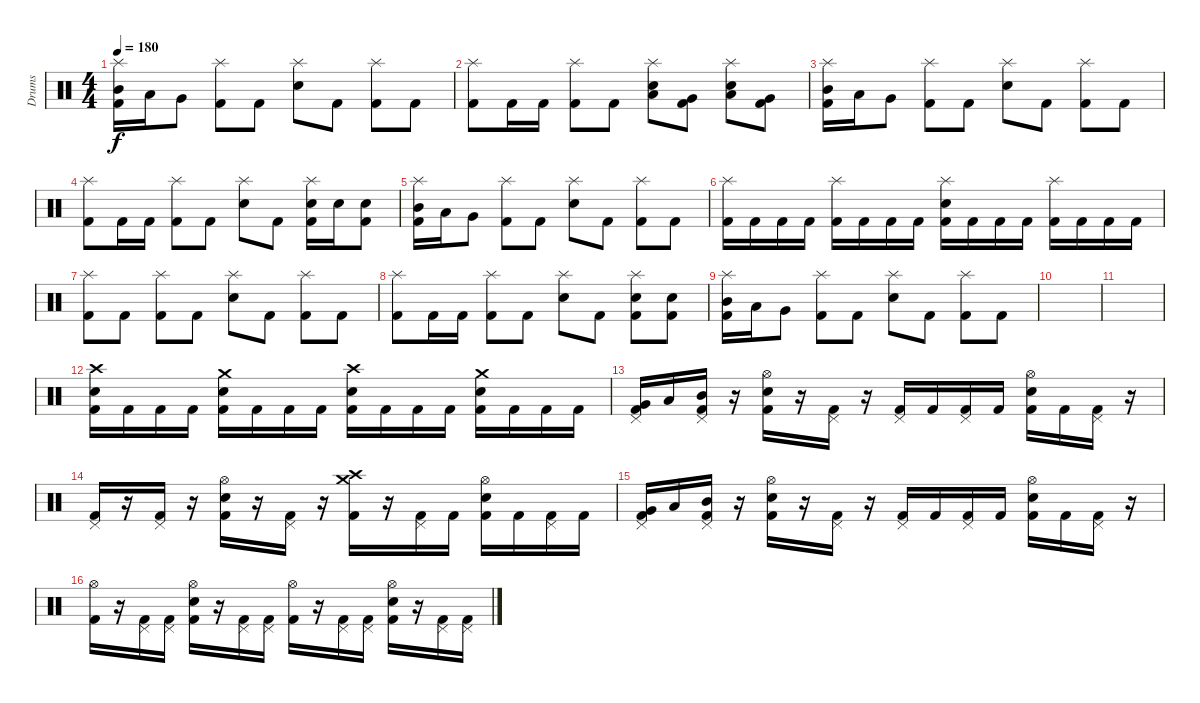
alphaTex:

\track ("Drums" "Drums") {instrument percussion}
\staff {score}
\articulation defaults
\ts (4 4)
\tempo 180
\clef neutral
\ks c
("Splash (hit)" "Mid Tom (hit)" "Kick (hit) 2").16{dy f} "Low Tom (hit)".16 "Very Low Tom (hit)".8 ("Splash (hit)" "Kick (hit) 2").8 "Kick (hit) 2".8 ("Splash (hit)" "Snare (hit) 2").8 "Kick (hit) 2".8 ("Splash (hit)" "Kick (hit) 2").8 "Kick (hit) 2".8 |
("Splash (hit)" "Kick (hit) 2").8 "Kick (hit) 2".16 "Kick (hit) 2".16 ("Splash (hit)" "Kick (hit) 2").8 "Kick (hit) 2".8 ("Splash (hit)" "Snare (hit) 2" "Low Tom (hit)").8 ("Very Low Tom (hit)" "Kick (hit) 2").8 ("Splash (hit)" "Snare (hit) 2" "Low Tom (hit)").8 ("Very Low Tom (hit)" "Kick (hit) 2").8 |
("Splash (hit)" "Mid Tom (hit)" "Kick (hit) 2").16 "Low Tom (hit)".16 "Very Low Tom (hit)".8 ("Splash (hit)" "Kick (hit) 2").8 "Kick (hit) 2".8 ("Splash (hit)" "Snare (hit) 2").8 "Kick (hit) 2".8 ("Splash (hit)" "Kick (hit) 2").8 "Kick (hit) 2".8 |
("Splash (hit)" "Kick (hit) 2").8 "Kick (hit) 2".16 "Kick (hit) 2".16 ("Splash (hit)" "Kick (hit) 2").8 "Kick (hit) 2".8 ("Splash (hit)" "Snare (hit) 2").8 "Kick (hit) 2".8 ("Splash (hit)" "Snare (hit) 2" "Kick (hit) 2").16 "Snare (hit) 2".16 ("Snare (hit) 2" "Kick (hit) 2").8 |
("Splash (hit)" "Mid Tom (hit)" "Kick (hit) 2").16 "Low Tom (hit)".16 "Very Low Tom (hit)".8 ("Splash (hit)" "Kick (hit) 2").8 "Kick (hit) 2".8 ("Splash (hit)" "Snare (hit) 2").8 "Kick (hit) 2".8 ("Splash (hit)" "Kick (hit) 2").8 "Kick (hit) 2".8 |
("Splash (hit)" "Kick (hit) 2").16 "Kick (hit) 2".16 "Kick (hit) 2".16 "Kick (hit) 2".16 ("Splash (hit)" "Kick (hit) 2").16 "Kick (hit) 2".16 "Kick (hit) 2".16 "Kick (hit) 2".16 ("Splash (hit)" "Snare (hit) 2" "Kick (hit) 2").16 "Kick (hit) 2".16 "Kick (hit) 2".16 "Kick (hit) 2".16 ("Splash (hit)" "Kick (hit) 2").16 "Kick (hit) 2".16 "Kick (hit) 2".16 "Kick (hit) 2".16 |
("Splash (hit)" "Kick (hit) 2").8 "Kick (hit) 2".8 ("Splash (hit)" "Kick (hit) 2").8 "Kick (hit) 2".8 ("Splash (hit)" "Snare (hit) 2").8 "Kick (hit) 2".8 ("Splash (hit)" "Kick (hit) 2").8 "Kick (hit) 2".8 |
("Splash (hit)" "Kick (hit) 2").8 "Kick (hit) 2".16 "Kick (hit) 2".16 ("Splash (hit)" "Kick (hit) 2").8 "Kick (hit) 2".8 ("Splash (hit)" "Snare (hit) 2").8 "Kick (hit) 2".8 ("Splash (hit)" "Snare (hit) 2" "Kick (hit) 2").8 ("Snare (hit) 2" "Kick (hit) 2").8 |
("Splash (hit)" "Mid Tom (hit)" "Kick (hit) 2").16 "Low Tom (hit)".16 "Very Low Tom (hit)".8 ("Splash (hit)" "Kick (hit) 2").8 "Kick (hit) 2".8 ("Splash (hit)" "Snare (hit) 2").8 "Kick (hit) 2".8 ("Splash (hit)" "Kick (hit) 2").8 "Kick (hit) 2".8 |
|
|
("Crash high (hit)" "Snare (hit) 2" "Kick (hit) 2").16 "Kick (hit) 2".16 "Kick (hit) 2".16 "Kick (hit) 2".16 ("Crash medium (hit)" "Snare (hit) 2" "Kick (hit) 2").16 "Kick (hit) 2".16 "Kick (hit) 2".16 "Kick (hit) 2".16 ("Crash high (hit)" "Snare (hit) 2" "Kick (hit) 2").16 "Kick (hit) 2".16 "Kick (hit) 2".16 "Kick (hit) 2".16 ("Crash medium (hit)" "Snare (hit) 2" "Kick (hit) 2").16 "Kick (hit) 2".16 "Kick (hit) 2".16 "Kick (hit) 2".16 |
("Pedal Hi-Hat (hit)" "Very Low Tom (hit)" "Kick (hit) 2").16 "Low Tom (hit)".16 ("Pedal Hi-Hat (hit)" "Mid Tom (hit)" "Kick (hit) 2").16 r.16 ("Hi-Hat (open)" "Snare (hit) 2" "Kick (hit) 2").16 r.16 ("Pedal Hi-Hat (hit)" "Kick (hit) 2").16 r.16 ("Pedal Hi-Hat (hit)" "Kick (hit) 2").16 "Kick (hit) 2".16 ("Pedal Hi-Hat (hit)" "Kick (hit) 2").16 "Kick (hit) 2".16 ("Hi-Hat (open)" "Snare (hit) 2" "Kick (hit) 2").16 "Kick (hit) 2".16 ("Pedal Hi-Hat (hit)" "Kick (hit) 2").16 r.16 |
("Pedal Hi-Hat (hit)" "Kick (hit) 2").16 r.16 ("Pedal Hi-Hat (hit)" "Kick (hit) 2").16 r.16 ("Hi-Hat (open)" "Snare (hit) 2" "Kick (hit) 2").16 r.16 ("Pedal Hi-Hat (hit)" "Kick (hit) 2").16 r.16 ("Crash high (hit)" "Crash medium (hit)" "Kick (hit) 2").16 r.16 ("Pedal Hi-Hat (hit)" "Kick (hit) 2").16 "Kick (hit) 2".16 ("Hi-Hat (open)" "Snare (hit) 2" "Kick (hit) 2").16 "Kick (hit) 2".16 ("Pedal Hi-Hat (hit)" "Kick (hit) 2").16 "Kick (hit) 2".16 |
("Pedal Hi-Hat (hit)" "Very Low Tom (hit)" "Kick (hit) 2").16 "Low Tom (hit)".16 ("Pedal Hi-Hat (hit)" "Mid Tom (hit)" "Kick (hit) 2").16 r.16 ("Hi-Hat (open)" "Snare (hit) 2" "Kick (hit) 2").16 r.16 ("Pedal Hi-Hat (hit)" "Kick (hit) 2").16 r.16 ("Pedal Hi-Hat (hit)" "Kick (hit) 2").16 "Kick (hit) 2".16 ("Pedal Hi-Hat (hit)" "Kick (hit) 2").16 "Kick (hit) 2".16 ("Hi-Hat (open)" "Snare (hit) 2" "Kick (hit) 2").16 "Kick (hit) 2".16 ("Pedal Hi-Hat (hit)" "Kick (hit) 2").16 r.16 |
("Hi-Hat (open)" "Kick (hit) 2").16 r.16 ("Pedal Hi-Hat (hit)" "Kick (hit) 2").16 ("Pedal Hi-Hat (hit)" "Kick (hit) 2").16 ("Hi-Hat (open)" "Snare (hit) 2" "Kick (hit) 2").16 r.16 ("Pedal Hi-Hat (hit)" "Kick (hit) 2").16 ("Pedal Hi-Hat (hit)" "Kick (hit) 2").16 ("Hi-Hat (open)" "Kick (hit) 2").16 r.16 ("Pedal Hi-Hat (hit)" "Kick (hit) 2").16 ("Pedal Hi-Hat (hit)" "Kick (hit) 2").16 ("Hi-Hat (open)" "Snare (hit) 2" "Kick (hit) 2").16 r.16 ("Pedal Hi-Hat (hit)" "Kick (hit) 2").16 ("Pedal Hi-Hat (hit)" "Kick (hit) 2").16
